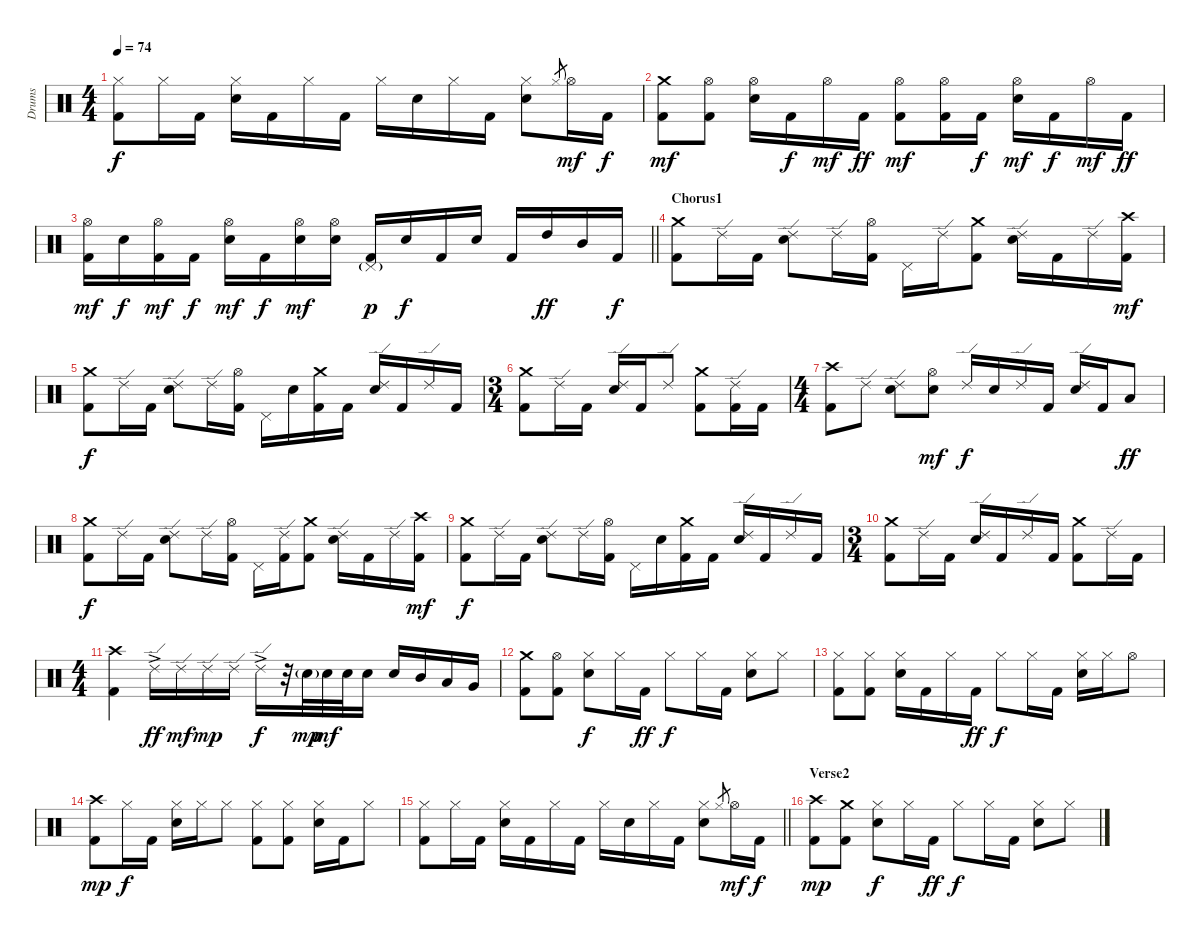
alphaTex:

\track ("Drums" "Drums") {instrument percussion}
\staff {score}
\articulation defaults
\ts (4 4)
\tempo 74
\clef neutral
\ks c
("Hi-Hat (closed)" "Kick (hit) 2").8{dy f} "Hi-Hat (closed)".16 "Kick (hit) 2".16 ("Hi-Hat (closed)" "Snare (hit) 2").16 "Kick (hit) 2".16 "Hi-Hat (closed)".16 "Kick (hit) 2".16 "Hi-Hat (closed)".16 "Snare (hit) 2".16 "Hi-Hat (closed)".16 "Kick (hit) 2".16 ("Hi-Hat (closed)" "Snare (hit) 2").8 "Hi-Hat (closed)".8{gr} "Hi-Hat (open)".16{dy mf} "Kick (hit) 2".16{dy f} |
("Crash medium (hit)" "Kick (hit) 2").8{dy mf} ("Hi-Hat (open)" "Kick (hit) 2").8 ("Hi-Hat (open)" "Snare (hit) 2").16 "Kick (hit) 2".16{dy f} "Hi-Hat (open)".16{dy mf} "Kick (hit) 2".16{dy ff} ("Hi-Hat (open)" "Kick (hit) 2").8{dy mf} ("Hi-Hat (open)" "Kick (hit) 2").16 "Kick (hit) 2".16{dy f} ("Hi-Hat (open)" "Snare (hit) 2").16{dy mf} "Kick (hit) 2".16{dy f} "Hi-Hat (open)".16{dy mf} "Kick (hit) 2".16{dy ff} |
\barLineRight lightlight
("Hi-Hat (open)" "Kick (hit) 2").16{dy mf} "Snare (hit) 2".16{dy f} ("Hi-Hat (open)" "Kick (hit) 2").16{dy mf} "Kick (hit) 2".16{dy f} ("Hi-Hat (open)" "Snare (hit) 2").16{dy mf} "Kick (hit) 2".16{dy f} ("Hi-Hat (open)" "Snare (hit) 2").16{dy mf} ("Hi-Hat (open)" "Snare (hit) 2").16 ("Pedal Hi-Hat (hit)"{g} "Kick (hit) 2").16{dy p} "Snare (hit) 2".16{dy f} "Kick (hit) 2".16 "Snare (hit) 2".16 "Kick (hit) 2".16 "High Tom (hit)".16{dy ff} "Mid Tom (hit)".16 "Kick (hit) 2".16{dy f} |
\section ("" "Chorus1")
("Crash medium (hit)" "Kick (hit) 2").8 "Ride (edge) 2".16 "Kick (hit) 2".16 ("Ride (edge) 2" "Snare (hit) 2").8 "Ride (edge) 2".16 ("Hi-Hat (open)" "Kick (hit) 2").16 "Pedal Hi-Hat (hit)".16 "Ride (edge) 2".16 ("Crash medium (hit)" "Kick (hit) 2").8 ("Ride (edge) 2" "Snare (hit) 2").16 "Kick (hit) 2".16 "Ride (edge) 2".16 ("Crash high (hit)" "Kick (hit) 2").16{dy mf} |
("Crash medium (hit)" "Kick (hit) 2").8{dy f} "Ride (edge) 2".16 "Kick (hit) 2".16 ("Ride (edge) 2" "Snare (hit) 2").8 "Ride (edge) 2".16 ("Hi-Hat (open)" "Kick (hit) 2").16 "Pedal Hi-Hat (hit)".16 "Snare (hit) 2".16 ("Crash medium (hit)" "Kick (hit) 2").16 "Kick (hit) 2".16 ("Ride (edge) 2" "Snare (hit) 2").16 "Kick (hit) 2".16 "Ride (edge) 2".16 "Kick (hit) 2".16 |
\ts (3 4)
("Crash medium (hit)" "Kick (hit) 2").8 "Ride (edge) 2".16 "Kick (hit) 2".16 ("Ride (edge) 2" "Snare (hit) 2").16 "Kick (hit) 2".16 "Ride (edge) 2".8 ("Crash medium (hit)" "Kick (hit) 2").8 ("Ride (edge) 2" "Kick (hit) 2").16 "Kick (hit) 2".16 |
\ts (4 4)
("Crash high (hit)" "Kick (hit) 2").8 "Ride (edge) 2".8 ("Ride (edge) 2" "Snare (hit) 2").8 ("Hi-Hat (open)" "Snare (hit) 2").8{dy mf} "Ride (edge) 2".16{dy f} "Snare (hit) 2".16 "Ride (edge) 2".16 "Kick (hit) 2".16 ("Ride (edge) 2" "Snare (hit) 2").16 "Kick (hit) 2".16 "Low Tom (hit)".8{dy ff} |
("Crash medium (hit)" "Kick (hit) 2").8{dy f} "Ride (edge) 2".16 "Kick (hit) 2".16 ("Ride (edge) 2" "Snare (hit) 2").8 "Ride (edge) 2".16 ("Hi-Hat (open)" "Kick (hit) 2").16 "Pedal Hi-Hat (hit)".16 ("Ride (edge) 2" "Kick (hit) 2").16 ("Crash medium (hit)" "Kick (hit) 2").8 ("Ride (edge) 2" "Snare (hit) 2").16 "Kick (hit) 2".16 "Ride (edge) 2".16 ("Crash high (hit)" "Kick (hit) 2").16{dy mf} |
("Crash medium (hit)" "Kick (hit) 2").8{dy f} "Ride (edge) 2".16 "Kick (hit) 2".16 ("Ride (edge) 2" "Snare (hit) 2").8 "Ride (edge) 2".16 ("Hi-Hat (open)" "Kick (hit) 2").16 "Pedal Hi-Hat (hit)".16 "Snare (hit) 2".16 ("Crash medium (hit)" "Kick (hit) 2").16 "Kick (hit) 2".16 ("Ride (edge) 2" "Snare (hit) 2").16 "Kick (hit) 2".16 "Ride (edge) 2".16 "Kick (hit) 2".16 |
\ts (3 4)
("Crash medium (hit)" "Kick (hit) 2").8 "Ride (edge) 2".16 "Kick (hit) 2".16 ("Ride (edge) 2" "Snare (hit) 2").16 "Kick (hit) 2".16 "Ride (edge) 2".16 "Kick (hit) 2".16 ("Crash medium (hit)" "Kick (hit) 2").8 "Ride (edge) 2".16 "Kick (hit) 2".16 |
\ts (4 4)
("Crash high (hit)" "Kick (hit) 2").4 "Ride (edge) 2"{ac}.16{dy ff} "Ride (edge) 2".16{dy mf} "Ride (edge) 2".16{dy mp} "Ride (edge) 2".16 "Ride (edge) 2"{ac}.16{dy f} r.32 "Snare (hit) 2"{g}.32{dy mp} "Snare (hit) 2".32{dy mf} "Snare (hit) 2".32 "Snare (hit) 2".16 "Snare (hit) 2".16 "Mid Tom (hit)".16 "Low Tom (hit)".16 "Very Low Tom (hit)".16 |
("Crash medium (hit)" "Kick (hit) 2").8 ("Hi-Hat (open)" "Kick (hit) 2").8 ("Hi-Hat (closed)" "Snare (hit) 2").8{dy f} "Hi-Hat (closed)".16 "Kick (hit) 2".16{dy ff} "Hi-Hat (closed)".8{dy f} "Hi-Hat (closed)".16 "Kick (hit) 2".16 ("Hi-Hat (closed)" "Snare (hit) 2").8 "Hi-Hat (closed)".8 |
("Hi-Hat (closed)" "Kick (hit) 2").8 ("Hi-Hat (closed)" "Kick (hit) 2").8 ("Hi-Hat (closed)" "Snare (hit) 2").16 "Kick (hit) 2".16 "Hi-Hat (closed)".16 "Kick (hit) 2".16{dy ff} "Hi-Hat (closed)".8{dy f} "Hi-Hat (closed)".16 "Kick (hit) 2".16 ("Hi-Hat (closed)" "Snare (hit) 2").16 "Hi-Hat (closed)".16 "Hi-Hat (open)".8 |
("Crash high (hit)" "Kick (hit) 2").8{dy mp} "Hi-Hat (closed)".16{dy f} "Kick (hit) 2".16 ("Hi-Hat (closed)" "Snare (hit) 2").16 "Hi-Hat (closed)".16 "Hi-Hat (closed)".8 ("Hi-Hat (closed)" "Kick (hit) 2").8 ("Hi-Hat (closed)" "Kick (hit) 2").8 ("Hi-Hat (closed)" "Snare (hit) 2").16 "Kick (hit) 2".16 "Hi-Hat (closed)".8 |
\barLineRight lightlight
("Hi-Hat (closed)" "Kick (hit) 2").8 "Hi-Hat (closed)".16 "Kick (hit) 2".16 ("Hi-Hat (closed)" "Snare (hit) 2").16 "Kick (hit) 2".16 "Hi-Hat (closed)".16 "Kick (hit) 2".16 "Hi-Hat (closed)".16 "Snare (hit) 2".16 "Hi-Hat (closed)".16 "Kick (hit) 2".16 ("Hi-Hat (closed)" "Snare (hit) 2").8 "Hi-Hat (closed)".8{gr} "Hi-Hat (open)".16{dy mf} "Kick (hit) 2".16{dy f} |
\section ("" "Verse2")
("Crash high (hit)" "Kick (hit) 2").8{dy mp} ("Crash medium (hit)" "Kick (hit) 2").8 ("Hi-Hat (closed)" "Snare (hit) 2").8{dy f} "Hi-Hat (closed)".16 "Kick (hit) 2".16{dy ff} "Hi-Hat (closed)".8{dy f} "Hi-Hat (closed)".16 "Kick (hit) 2".16 ("Hi-Hat (closed)" "Snare (hit) 2").8 "Hi-Hat (closed)".8
